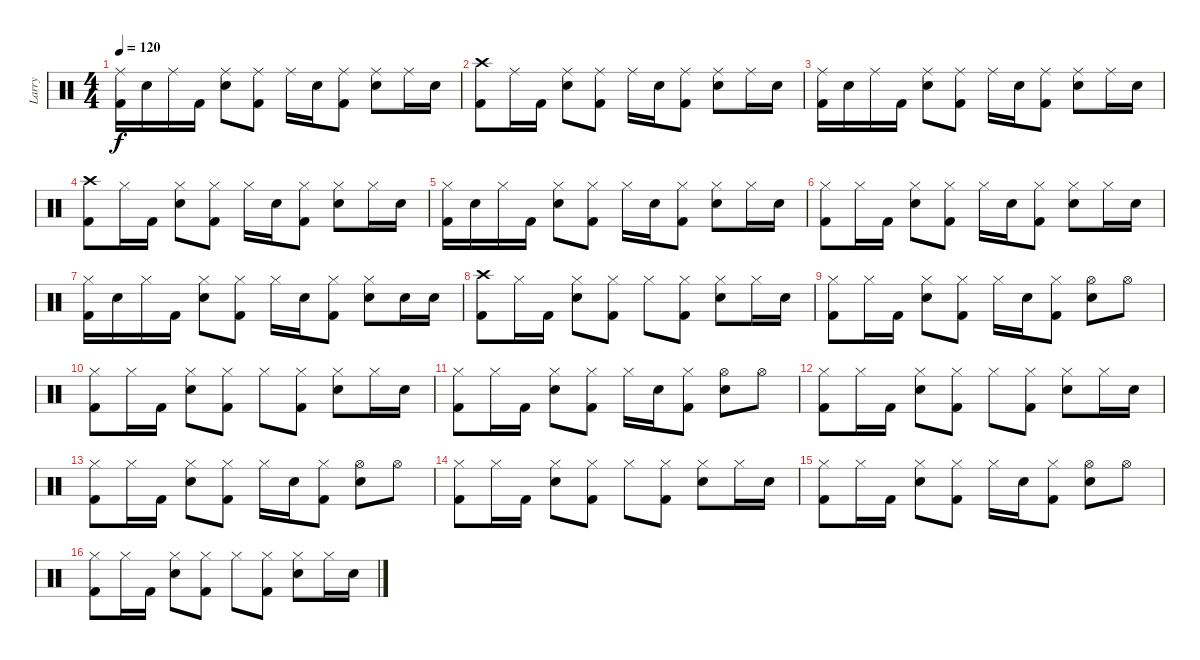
\track ("Larry" "Larry") {instrument percussion}
\staff {score}
\articulation defaults
\ts (4 4)
\tempo 120
\clef neutral
\ks c
("Ride (middle)" "Kick (hit) 2").16{dy f} "Snare (hit) 2".16 "Ride (middle)".16 "Kick (hit) 2".16 ("Ride (middle)" "Snare (hit) 2").8 ("Ride (middle)" "Kick (hit) 2").8 "Ride (middle)".16 "Snare (hit) 2".16 ("Ride (middle)" "Kick (hit) 2").8 ("Ride (middle)" "Snare (hit) 2").8 "Ride (middle)".16 "Snare (hit) 2".16 |
("Crash high (hit)" "Kick (hit) 2").8 "Ride (middle)".16 "Kick (hit) 2".16 ("Ride (middle)" "Snare (hit) 2").8 ("Ride (middle)" "Kick (hit) 2").8 "Ride (middle)".16 "Snare (hit) 2".16 ("Ride (middle)" "Kick (hit) 2").8 ("Ride (middle)" "Snare (hit) 2").8 "Ride (middle)".16 "Snare (hit) 2".16 |
("Ride (middle)" "Kick (hit) 2").16 "Snare (hit) 2".16 "Ride (middle)".16 "Kick (hit) 2".16 ("Ride (middle)" "Snare (hit) 2").8 ("Ride (middle)" "Kick (hit) 2").8 "Ride (middle)".16 "Snare (hit) 2".16 ("Ride (middle)" "Kick (hit) 2").8 ("Ride (middle)" "Snare (hit) 2").8 "Ride (middle)".16 "Snare (hit) 2".16 |
("Crash high (hit)" "Kick (hit) 2").8 "Hi-Hat (closed)".16 "Kick (hit) 2".16 ("Hi-Hat (closed)" "Snare (hit) 2").8 ("Hi-Hat (closed)" "Kick (hit) 2").8 "Hi-Hat (closed)".16 "Snare (hit) 2".16 ("Hi-Hat (closed)" "Kick (hit) 2").8 ("Hi-Hat (closed)" "Snare (hit) 2").8 "Hi-Hat (closed)".16 "Snare (hit) 2".16 |
("Hi-Hat (closed)" "Kick (hit) 2").16 "Snare (hit) 2".16 "Hi-Hat (closed)".16 "Kick (hit) 2".16 ("Hi-Hat (closed)" "Snare (hit) 2").8 ("Hi-Hat (closed)" "Kick (hit) 2").8 "Hi-Hat (closed)".16 "Snare (hit) 2".16 ("Hi-Hat (closed)" "Kick (hit) 2").8 ("Hi-Hat (closed)" "Snare (hit) 2").8 "Hi-Hat (closed)".16 "Snare (hit) 2".16 |
("Hi-Hat (closed)" "Kick (hit) 2").8 "Hi-Hat (closed)".16 "Kick (hit) 2".16 ("Hi-Hat (closed)" "Snare (hit) 2").8 ("Hi-Hat (closed)" "Kick (hit) 2").8 "Hi-Hat (closed)".16 "Snare (hit) 2".16 ("Hi-Hat (closed)" "Kick (hit) 2").8 ("Hi-Hat (closed)" "Snare (hit) 2").8 "Hi-Hat (closed)".16 "Snare (hit) 2".16 |
("Hi-Hat (closed)" "Kick (hit) 2").16 "Snare (hit) 2".16 "Hi-Hat (closed)".16 "Kick (hit) 2".16 ("Hi-Hat (closed)" "Snare (hit) 2").8 ("Hi-Hat (closed)" "Kick (hit) 2").8 "Hi-Hat (closed)".16 "Snare (hit) 2".16 ("Hi-Hat (closed)" "Kick (hit) 2").8 ("Hi-Hat (closed)" "Snare (hit) 2").8 "Snare (hit) 2".16 "Snare (hit) 2".16 |
("Crash high (hit)" "Kick (hit) 2").8 "Hi-Hat (closed)".16 "Kick (hit) 2".16 ("Hi-Hat (closed)" "Snare (hit) 2").8 ("Hi-Hat (closed)" "Kick (hit) 2").8 "Hi-Hat (closed)".8 ("Hi-Hat (closed)" "Kick (hit) 2").8 ("Hi-Hat (closed)" "Snare (hit) 2").8 "Hi-Hat (closed)".16 "Snare (hit) 2".16 |
("Hi-Hat (closed)" "Kick (hit) 2").8 "Hi-Hat (closed)".16 "Kick (hit) 2".16 ("Hi-Hat (closed)" "Snare (hit) 2").8 ("Hi-Hat (closed)" "Kick (hit) 2").8 "Hi-Hat (closed)".16 "Snare (hit) 2".16 ("Hi-Hat (closed)" "Kick (hit) 2").8 ("Hi-Hat (open)" "Snare (hit) 2").8 "Hi-Hat (open)".8 |
("Hi-Hat (closed)" "Kick (hit) 2").8 "Hi-Hat (closed)".16 "Kick (hit) 2".16 ("Hi-Hat (closed)" "Snare (hit) 2").8 ("Hi-Hat (closed)" "Kick (hit) 2").8 "Hi-Hat (closed)".8 ("Hi-Hat (closed)" "Kick (hit) 2").8 ("Hi-Hat (closed)" "Snare (hit) 2").8 "Hi-Hat (closed)".16 "Snare (hit) 2".16 |
("Hi-Hat (closed)" "Kick (hit) 2").8 "Hi-Hat (closed)".16 "Kick (hit) 2".16 ("Hi-Hat (closed)" "Snare (hit) 2").8 ("Hi-Hat (closed)" "Kick (hit) 2").8 "Hi-Hat (closed)".16 "Snare (hit) 2".16 ("Hi-Hat (closed)" "Kick (hit) 2").8 ("Hi-Hat (open)" "Snare (hit) 2").8 "Hi-Hat (open)".8 |
("Hi-Hat (closed)" "Kick (hit) 2").8 "Hi-Hat (closed)".16 "Kick (hit) 2".16 ("Hi-Hat (closed)" "Snare (hit) 2").8 ("Hi-Hat (closed)" "Kick (hit) 2").8 "Hi-Hat (closed)".8 ("Hi-Hat (closed)" "Kick (hit) 2").8 ("Hi-Hat (closed)" "Snare (hit) 2").8 "Hi-Hat (closed)".16 "Snare (hit) 2".16 |
("Hi-Hat (closed)" "Kick (hit) 2").8 "Hi-Hat (closed)".16 "Kick (hit) 2".16 ("Hi-Hat (closed)" "Snare (hit) 2").8 ("Hi-Hat (closed)" "Kick (hit) 2").8 "Hi-Hat (closed)".16 "Snare (hit) 2".16 ("Hi-Hat (closed)" "Kick (hit) 2").8 ("Hi-Hat (open)" "Snare (hit) 2").8 "Hi-Hat (open)".8 |
("Hi-Hat (closed)" "Kick (hit) 2").8 "Hi-Hat (closed)".16 "Kick (hit) 2".16 ("Hi-Hat (closed)" "Snare (hit) 2").8 ("Hi-Hat (closed)" "Kick (hit) 2").8 "Hi-Hat (closed)".8 ("Hi-Hat (closed)" "Kick (hit) 2").8 ("Hi-Hat (closed)" "Snare (hit) 2").8 "Hi-Hat (closed)".16 "Snare (hit) 2".16 |
("Hi-Hat (closed)" "Kick (hit) 2").8 "Hi-Hat (closed)".16 "Kick (hit) 2".16 ("Hi-Hat (closed)" "Snare (hit) 2").8 ("Hi-Hat (closed)" "Kick (hit) 2").8 "Hi-Hat (closed)".16 "Snare (hit) 2".16 ("Hi-Hat (closed)" "Kick (hit) 2").8 ("Hi-Hat (open)" "Snare (hit) 2").8 "Hi-Hat (open)".8 |
("Hi-Hat (closed)" "Kick (hit) 2").8 "Hi-Hat (closed)".16 "Kick (hit) 2".16 ("Hi-Hat (closed)" "Snare (hit) 2").8 ("Hi-Hat (closed)" "Kick (hit) 2").8 "Hi-Hat (closed)".8 ("Hi-Hat (closed)" "Kick (hit) 2").8 ("Hi-Hat (closed)" "Snare (hit) 2").8 "Hi-Hat (closed)".16 "Snare (hit) 2".16
